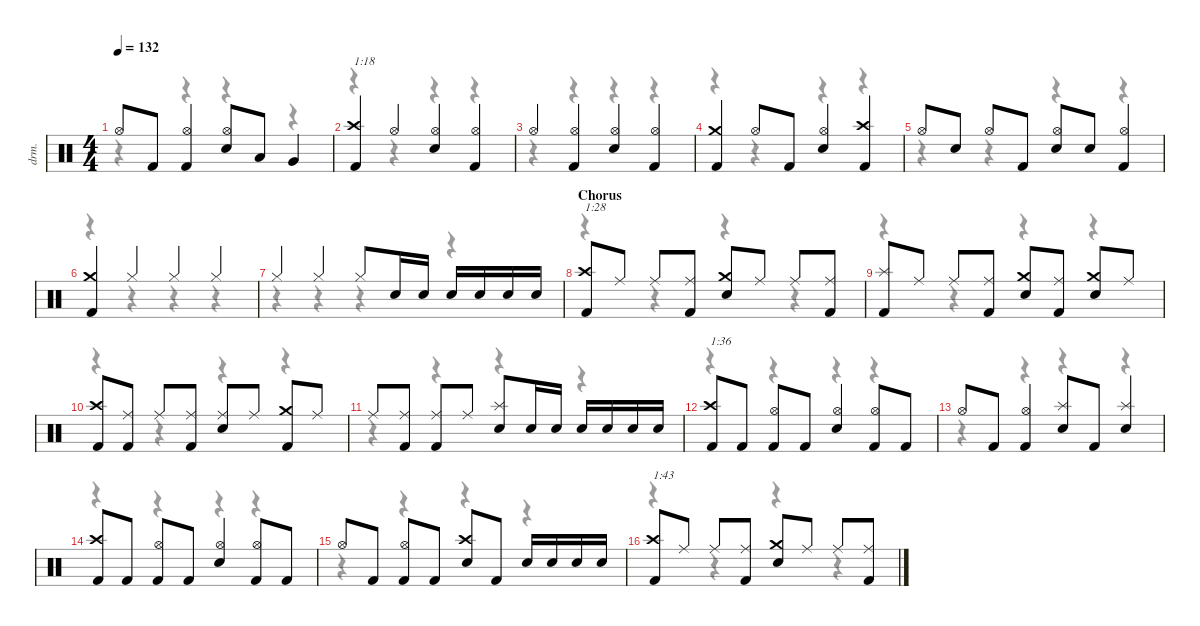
\defaultSystemsLayout 4
\hideDynamics
\bracketExtendMode nobrackets
\otherSystemsTrackNameOrientation horizontal
\track ("Drums" "drm.") {instrument percussion}
\staff {score}
\articulation defaults
\voice
\ts (4 4)
\tempo 132
\clef neutral
\ks c "Hi-Hat (open)".8{dy f} "Kick (hit) 2".8{dy fff}
("Hi-Hat (open)" "Kick (hit) 2").4{dy f} ("Hi-Hat (open)" "Snare (hit) 2").8 "Low Tom (hit)".8{dy fff} "Very Low Tom (hit)".4 |
("Crash high (hit)" "Kick (hit) 2").4{txt "1:18" dy f} "Hi-Hat (open)".4 ("Hi-Hat (open)" "Snare (hit) 2").4 ("Hi-Hat (open)" "Kick (hit) 2").4 |
"Hi-Hat (open)".4 ("Hi-Hat (open)" "Kick (hit) 2").4 ("Hi-Hat (open)" "Snare (hit) 2").4 ("Hi-Hat (open)" "Kick (hit) 2").4 |
("Crash medium (hit)" "Kick (hit) 2").4 "Hi-Hat (open)".8 "Kick (hit) 2".8{dy fff} ("Hi-Hat (open)" "Snare (hit) 2").4{dy f} ("Crash high (hit)" "Kick (hit) 2").4 |
"Hi-Hat (open)".8 "Snare (hit) 2".8{dy fff} "Hi-Hat (open)".8{dy f} "Kick (hit) 2".8{dy fff} ("Hi-Hat (open)" "Snare (hit) 2").8{dy f} "Snare (hit) 2".8{dy fff} ("Hi-Hat (open)" "Kick (hit) 2").4{dy f} |
("Crash medium (hit)" "Kick (hit) 2").4 "Hi-Hat (closed)".4 "Hi-Hat (closed)".4 "Hi-Hat (closed)".4 |
"Hi-Hat (closed)".4 "Hi-Hat (closed)".4 "Hi-Hat (closed)".8 "Snare (hit) 2".16{dy fff} "Snare (hit) 2".16 "Snare (hit) 2".16 "Snare (hit) 2".16 "Snare (hit) 2".16 "Snare (hit) 2".16 |
\section ("" "Chorus")
("Crash high (hit)" "Kick (hit) 2").8{txt "1:28" dy f} "Ride (middle)".8 "Ride (middle)".8 ("Ride (middle)" "Kick (hit) 2").8 ("Crash medium (hit)" "Snare (hit) 2").8 "Ride (middle)".8 "Ride (middle)".8 ("Ride (middle)" "Kick (hit) 2").8 |
("Splash (hit)" "Kick (hit) 2").8 "Ride (middle)".8 "Ride (middle)".8 ("Ride (middle)" "Kick (hit) 2").8 ("Crash medium (hit)" "Snare (hit) 2").8 ("Ride (middle)" "Kick (hit) 2").8 ("Crash medium (hit)" "Snare (hit) 2").8 "Ride (middle)".8 |
("Crash high (hit)" "Kick (hit) 2").8 ("Ride (middle)" "Kick (hit) 2").8 "Ride (middle)".8 ("Ride (middle)" "Kick (hit) 2").8 ("Ride (middle)" "Snare (hit) 2").8 "Ride (middle)".8 ("Crash medium (hit)" "Kick (hit) 2").8 "Ride (middle)".8 |
"Ride (middle)".8 ("Ride (middle)" "Kick (hit) 2").8 ("Ride (middle)" "Kick (hit) 2").8 "Ride (middle)".8 ("Splash (hit)" "Snare (hit) 2").8 "Snare (hit) 2".16{dy fff} "Snare (hit) 2".16 "Snare (hit) 2".16 "Snare (hit) 2".16 "Snare (hit) 2".16 "Snare (hit) 2".16 |
("Crash high (hit)" "Kick (hit) 2").8{txt "1:36" dy f} "Kick (hit) 2".8{dy fff} ("Hi-Hat (open)" "Kick (hit) 2").8{dy f} "Kick (hit) 2".8{dy fff} ("Hi-Hat (open)" "Snare (hit) 2").4{dy f} ("Hi-Hat (open)" "Kick (hit) 2").8 "Kick (hit) 2".8{dy fff} |
"Hi-Hat (open)".8{dy f} "Kick (hit) 2".8{dy fff} ("Hi-Hat (open)" "Kick (hit) 2").4{dy f} ("Splash (hit)" "Snare (hit) 2").8 "Kick (hit) 2".8{dy fff} ("Splash (hit)" "Snare (hit) 2").4{dy f} |
("Crash high (hit)" "Kick (hit) 2").8 "Kick (hit) 2".8{dy fff} ("Hi-Hat (open)" "Kick (hit) 2").8{dy f} "Kick (hit) 2".8{dy fff} ("Hi-Hat (open)" "Snare (hit) 2").4{dy f} ("Hi-Hat (open)" "Kick (hit) 2").8 "Kick (hit) 2".8{dy fff} |
"Hi-Hat (open)".8{dy f} "Kick (hit) 2".8{dy fff} ("Hi-Hat (open)" "Kick (hit) 2").8{dy f} "Kick (hit) 2".8{dy fff} ("Crash high (hit)" "Snare (hit) 2").8{dy f} "Kick (hit) 2".8{dy fff} "Snare (hit) 2".16 "Snare (hit) 2".16 "Snare (hit) 2".16 "Snare (hit) 2".16 |
("Crash high (hit)" "Kick (hit) 2").8{txt "1:43" dy f} "Ride (middle)".8 "Ride (middle)".8 ("Ride (middle)" "Kick (hit) 2").8 ("Crash medium (hit)" "Snare (hit) 2").8 "Ride (middle)".8 "Ride (middle)".8 ("Ride (middle)" "Kick (hit) 2").8
\voice
\clef neutral
\ottava regular
\simile none
\ks c
r.4{dy mf} r.4 r.4 r.4 |
r.4 r.4 r.4 r.4 |
r.4 r.4 r.4 r.4 |
r.4 r.4 r.4 r.4 |
r.4 r.4 r.4 r.4 |
r.4 r.4 r.4 r.4 |
r.4 r.4 r.4 r.4 |
r.4 r.4 r.4 r.4 |
r.4 r.4 r.4 r.4 |
r.4 r.4 r.4 r.4 |
r.4 r.4 r.4 r.4 |
r.4 r.4 r.4 r.4 |
r.4 r.4 r.4 r.4 |
r.4 r.4 r.4 r.4 |
r.4 r.4 r.4 r.4 |
r.4 r.4 r.4 r.4
